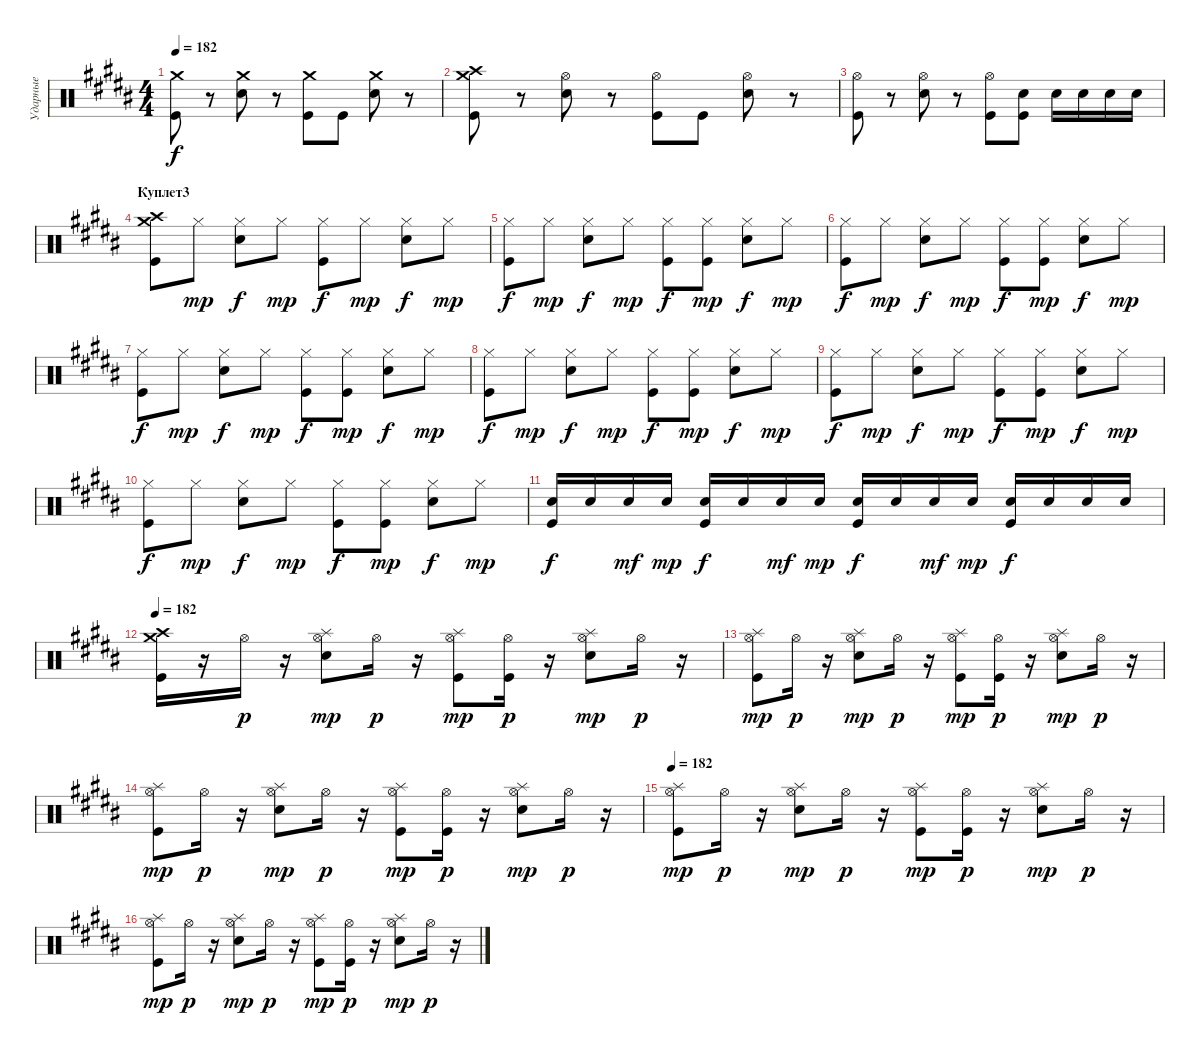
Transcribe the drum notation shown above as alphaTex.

\track ("Ударные" "Ударные") {instrument percussion}
\staff {score}
\articulation defaults
\ts (4 4)
\tempo 182
\clef neutral
\ks b
("Crash medium (hit)" "Kick (hit)").8{dy f} r.8 ("Crash medium (hit)" "Electric Snare (hit)").8 r.8 ("Crash medium (hit)" "Kick (hit)").8 "Kick (hit)".8 ("Crash medium (hit)" "Electric Snare (hit)").8 r.8 |
("Crash medium (hit)" "Crash high (hit)" "Kick (hit)").8 r.8 ("Electric Snare (hit)" "Hi-Hat (open)").8 r.8 ("Kick (hit)" "Hi-Hat (open)").8 "Kick (hit)".8 ("Electric Snare (hit)" "Hi-Hat (open)").8 r.8 |
("Hi-Hat (open)" "Kick (hit)").8 r.8 ("Hi-Hat (open)" "Electric Snare (hit)").8 r.8 ("Kick (hit)" "Hi-Hat (open)").8 ("Electric Snare (hit)" "Kick (hit)").8 "Electric Snare (hit)".16 "Electric Snare (hit)".16 "Electric Snare (hit)".16 "Electric Snare (hit)".16 |
\section ("" "Куплет3")
("Crash medium (hit)" "Crash high (hit)" "Kick (hit)").8 "Hi-Hat (closed)".8{dy mp} ("Electric Snare (hit)" "Hi-Hat (closed)").8{dy f} "Hi-Hat (closed)".8{dy mp} ("Kick (hit)" "Hi-Hat (closed)").8{dy f} "Hi-Hat (closed)".8{dy mp} ("Electric Snare (hit)" "Hi-Hat (closed)").8{dy f} "Hi-Hat (closed)".8{dy mp} |
("Hi-Hat (closed)" "Kick (hit)").8{dy f} "Hi-Hat (closed)".8{dy mp} ("Electric Snare (hit)" "Hi-Hat (closed)").8{dy f} "Hi-Hat (closed)".8{dy mp} ("Kick (hit)" "Hi-Hat (closed)").8{dy f} ("Kick (hit)" "Hi-Hat (closed)").8{dy mp} ("Electric Snare (hit)" "Hi-Hat (closed)").8{dy f} "Hi-Hat (closed)".8{dy mp} |
("Hi-Hat (closed)" "Kick (hit)").8{dy f} "Hi-Hat (closed)".8{dy mp} ("Electric Snare (hit)" "Hi-Hat (closed)").8{dy f} "Hi-Hat (closed)".8{dy mp} ("Kick (hit)" "Hi-Hat (closed)").8{dy f} ("Kick (hit)" "Hi-Hat (closed)").8{dy mp} ("Electric Snare (hit)" "Hi-Hat (closed)").8{dy f} "Hi-Hat (closed)".8{dy mp} |
("Hi-Hat (closed)" "Kick (hit)").8{dy f} "Hi-Hat (closed)".8{dy mp} ("Electric Snare (hit)" "Hi-Hat (closed)").8{dy f} "Hi-Hat (closed)".8{dy mp} ("Kick (hit)" "Hi-Hat (closed)").8{dy f} ("Kick (hit)" "Hi-Hat (closed)").8{dy mp} ("Electric Snare (hit)" "Hi-Hat (closed)").8{dy f} "Hi-Hat (closed)".8{dy mp} |
("Hi-Hat (closed)" "Kick (hit)").8{dy f} "Hi-Hat (closed)".8{dy mp} ("Electric Snare (hit)" "Hi-Hat (closed)").8{dy f} "Hi-Hat (closed)".8{dy mp} ("Kick (hit)" "Hi-Hat (closed)").8{dy f} ("Kick (hit)" "Hi-Hat (closed)").8{dy mp} ("Electric Snare (hit)" "Hi-Hat (closed)").8{dy f} "Hi-Hat (closed)".8{dy mp} |
("Hi-Hat (closed)" "Kick (hit)").8{dy f} "Hi-Hat (closed)".8{dy mp} ("Electric Snare (hit)" "Hi-Hat (closed)").8{dy f} "Hi-Hat (closed)".8{dy mp} ("Kick (hit)" "Hi-Hat (closed)").8{dy f} ("Kick (hit)" "Hi-Hat (closed)").8{dy mp} ("Electric Snare (hit)" "Hi-Hat (closed)").8{dy f} "Hi-Hat (closed)".8{dy mp} |
("Hi-Hat (closed)" "Kick (hit)").8{dy f} "Hi-Hat (closed)".8{dy mp} ("Electric Snare (hit)" "Hi-Hat (closed)").8{dy f} "Hi-Hat (closed)".8{dy mp} ("Kick (hit)" "Hi-Hat (closed)").8{dy f} ("Kick (hit)" "Hi-Hat (closed)").8{dy mp} ("Electric Snare (hit)" "Hi-Hat (closed)").8{dy f} "Hi-Hat (closed)".8{dy mp} |
("Electric Snare (hit)" "Kick (hit)").16{dy f} "Electric Snare (hit)".16 "Electric Snare (hit)".16{dy mf} "Electric Snare (hit)".16{dy mp} ("Kick (hit)" "Electric Snare (hit)").16{dy f} "Electric Snare (hit)".16 "Electric Snare (hit)".16{dy mf} "Electric Snare (hit)".16{dy mp} ("Kick (hit)" "Electric Snare (hit)").16{dy f} "Electric Snare (hit)".16 "Electric Snare (hit)".16{dy mf} "Electric Snare (hit)".16{dy mp} ("Kick (hit)" "Electric Snare (hit)").16{dy f} "Electric Snare (hit)".16 "Electric Snare (hit)".16 "Electric Snare (hit)".16 |
\tempo 182
("Crash high (hit)" "Crash medium (hit)" "Kick (hit)").16 r.16 "Hi-Hat (open)".16{dy p} r.16 ("Splash (hit)" "Hi-Hat (open)" "Electric Snare (hit)").8{dy mp} "Hi-Hat (open)".16{dy p} r.16 ("Splash (hit)" "Hi-Hat (open)" "Kick (hit)").8{dy mp} ("Hi-Hat (open)" "Kick (hit)").16{dy p} r.16 ("Splash (hit)" "Hi-Hat (open)" "Electric Snare (hit)").8{dy mp} "Hi-Hat (open)".16{dy p} r.16 |
("Splash (hit)" "Hi-Hat (open)" "Kick (hit)").8{dy mp} "Hi-Hat (open)".16{dy p} r.16 ("Splash (hit)" "Hi-Hat (open)" "Electric Snare (hit)").8{dy mp} "Hi-Hat (open)".16{dy p} r.16 ("Splash (hit)" "Hi-Hat (open)" "Kick (hit)").8{dy mp} ("Hi-Hat (open)" "Kick (hit)").16{dy p} r.16 ("Splash (hit)" "Hi-Hat (open)" "Electric Snare (hit)").8{dy mp} "Hi-Hat (open)".16{dy p} r.16 |
("Splash (hit)" "Hi-Hat (open)" "Kick (hit)").8{dy mp} "Hi-Hat (open)".16{dy p} r.16 ("Splash (hit)" "Hi-Hat (open)" "Electric Snare (hit)").8{dy mp} "Hi-Hat (open)".16{dy p} r.16 ("Splash (hit)" "Hi-Hat (open)" "Kick (hit)").8{dy mp} ("Hi-Hat (open)" "Kick (hit)").16{dy p} r.16 ("Splash (hit)" "Hi-Hat (open)" "Electric Snare (hit)").8{dy mp} "Hi-Hat (open)".16{dy p} r.16 |
\tempo 182
("Splash (hit)" "Hi-Hat (open)" "Kick (hit)").8{dy mp} "Hi-Hat (open)".16{dy p} r.16 ("Splash (hit)" "Hi-Hat (open)" "Electric Snare (hit)").8{dy mp} "Hi-Hat (open)".16{dy p} r.16 ("Splash (hit)" "Hi-Hat (open)" "Kick (hit)").8{dy mp} ("Hi-Hat (open)" "Kick (hit)").16{dy p} r.16 ("Splash (hit)" "Hi-Hat (open)" "Electric Snare (hit)").8{dy mp} "Hi-Hat (open)".16{dy p} r.16 |
("Splash (hit)" "Hi-Hat (open)" "Kick (hit)").8{dy mp} "Hi-Hat (open)".16{dy p} r.16 ("Splash (hit)" "Hi-Hat (open)" "Electric Snare (hit)").8{dy mp} "Hi-Hat (open)".16{dy p} r.16 ("Splash (hit)" "Hi-Hat (open)" "Kick (hit)").8{dy mp} ("Hi-Hat (open)" "Kick (hit)").16{dy p} r.16 ("Splash (hit)" "Hi-Hat (open)" "Electric Snare (hit)").8{dy mp} "Hi-Hat (open)".16{dy p} r.16
